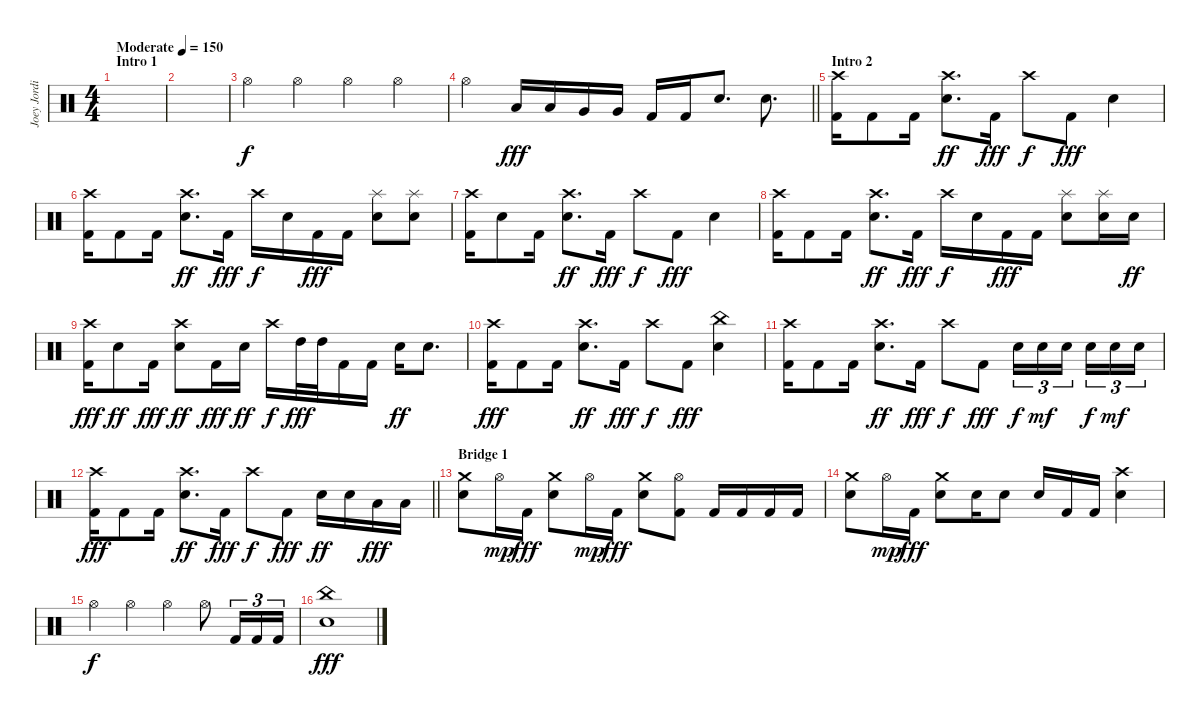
\track ("Joey Jordison" "Joey Jordi") {instrument percussion}
\staff {score}
\articulation defaults
\ts (4 4)
\section ("" "Intro 1")
\tempo (150 "Moderate")
\clef neutral
\ks c
|
|
"Hi-Hat (open)".4 "Hi-Hat (open)".4 "Hi-Hat (open)".4 "Hi-Hat (open)".4 |
\barLineRight lightlight "Hi-Hat (open)".4 "Low Tom (hit)".16{dy fff} "Low Tom (hit)".16 "Very Low Tom (hit)".16 "Very Low Tom (hit)".16 "Kick (hit) 2".16 "Kick (hit) 2".16 "Electric Snare (hit)".8{d} "Electric Snare (hit)".8{d}
|
\section ("" "Intro 2")
("Crash high (hit)" "Kick (hit) 2").16 "Kick (hit) 2".8 "Kick (hit) 2".16 ("Crash high (hit)" "Electric Snare (hit)").8{d dy ff} "Kick (hit) 2".16{dy fff} "Crash high (hit)".8{dy f} "Kick (hit) 2".8{dy fff} "Electric Snare (hit)".4 |
("Crash high (hit)" "Kick (hit) 2").16 "Kick (hit) 2".8 "Kick (hit) 2".16 ("Crash high (hit)" "Electric Snare (hit)").8{d dy ff} "Kick (hit) 2".16{dy fff} "Crash high (hit)".16{dy f} "Electric Snare (hit)".16 "Kick (hit) 2".16{dy fff} "Kick (hit) 2".16 ("Splash (hit)" "Electric Snare (hit)").8 ("Splash (hit)" "Electric Snare (hit)").8 |
("Crash high (hit)" "Kick (hit) 2").16 "Electric Snare (hit)".8 "Kick (hit) 2".16 ("Crash high (hit)" "Electric Snare (hit)").8{d dy ff} "Kick (hit) 2".16{dy fff} "Crash high (hit)".8{dy f} "Kick (hit) 2".8{dy fff} "Electric Snare (hit)".4 |
("Crash high (hit)" "Kick (hit) 2").16 "Kick (hit) 2".8 "Kick (hit) 2".16 ("Crash high (hit)" "Electric Snare (hit)").8{d dy ff} "Kick (hit) 2".16{dy fff} "Crash high (hit)".16{dy f} "Electric Snare (hit)".16 "Kick (hit) 2".16{dy fff} "Kick (hit) 2".16 ("Splash (hit)" "Electric Snare (hit)").8 ("Splash (hit)" "Electric Snare (hit)").16 "Electric Snare (hit)".16{dy ff} |
("Crash high (hit)" "Kick (hit) 2").16{dy fff} "Electric Snare (hit)".8{dy ff} "Kick (hit) 2".16{dy fff} ("Crash high (hit)" "Electric Snare (hit)").8{dy ff} "Kick (hit) 2".16{dy fff} "Electric Snare (hit)".16{dy ff} "Crash high (hit)".16{dy f} "High Tom (hit)".32{dy fff} "High Tom (hit)".32 "Kick (hit) 2".16 "Kick (hit) 2".16 "Electric Snare (hit)".16{dy ff} "Electric Snare (hit)".8{d} |
("Crash high (hit)" "Kick (hit) 2").16{dy fff} "Kick (hit) 2".8 "Kick (hit) 2".16 ("Crash high (hit)" "Electric Snare (hit)").8{d dy ff} "Kick (hit) 2".16{dy fff} "Crash high (hit)".8{dy f} "Kick (hit) 2".8{dy fff} ("China (hit)" "Electric Snare (hit)").4 |
("Crash high (hit)" "Kick (hit) 2").16 "Kick (hit) 2".8 "Kick (hit) 2".16 ("Crash high (hit)" "Electric Snare (hit)").8{d dy ff} "Kick (hit) 2".16{dy fff} "Crash high (hit)".8{dy f} "Kick (hit) 2".8{dy fff} "Electric Snare (hit)".16{tu (3 2) dy f} "Electric Snare (hit)".16{tu (3 2) dy mf} "Electric Snare (hit)".16{tu (3 2) beam splitsecondary} "Electric Snare (hit)".16{tu (3 2) dy f} "Electric Snare (hit)".16{tu (3 2) dy mf} "Electric Snare (hit)".16{tu (3 2)} |
\barLineRight lightlight
("Crash high (hit)" "Kick (hit) 2").16{dy fff} "Kick (hit) 2".8 "Kick (hit) 2".16 ("Crash high (hit)" "Electric Snare (hit)").8{d dy ff} "Kick (hit) 2".16{dy fff} "Crash high (hit)".8{dy f} "Kick (hit) 2".8{dy fff} "Electric Snare (hit)".16{dy ff} "Electric Snare (hit)".16 "Low Tom (hit)".16{dy fff} "Low Tom (hit)".16 |
\section ("" "Bridge 1")
("Crash medium (hit)" "Electric Snare (hit)").8 "Hi-Hat (open)".16{dy mp} "Kick (hit) 2".16{dy fff} ("Crash medium (hit)" "Electric Snare (hit)").8 "Hi-Hat (open)".16{dy mp} "Kick (hit) 2".16{dy fff} ("Crash medium (hit)" "Electric Snare (hit)").8 ("Hi-Hat (open)" "Kick (hit) 2").8 "Kick (hit) 2".16 "Kick (hit) 2".16 "Kick (hit) 2".16 "Kick (hit) 2".16 |
("Crash medium (hit)" "Electric Snare (hit)").8 "Hi-Hat (open)".16{dy mp} "Kick (hit) 2".16{dy fff} ("Crash medium (hit)" "Electric Snare (hit)").8 "Electric Snare (hit)".16 "Electric Snare (hit)".8 "Electric Snare (hit)".16 "Kick (hit) 2".16 "Kick (hit) 2".16 ("Crash high (hit)" "Electric Snare (hit)").4 |
"Hi-Hat (open)".4{dy f} "Hi-Hat (open)".4 "Hi-Hat (open)".4 "Hi-Hat (open)".8 "Kick (hit) 2".16{tu (3 2)} "Kick (hit) 2".16{tu (3 2)} "Kick (hit) 2".16{tu (3 2)} |
("China (hit)" "Electric Snare (hit)").1{dy fff}
